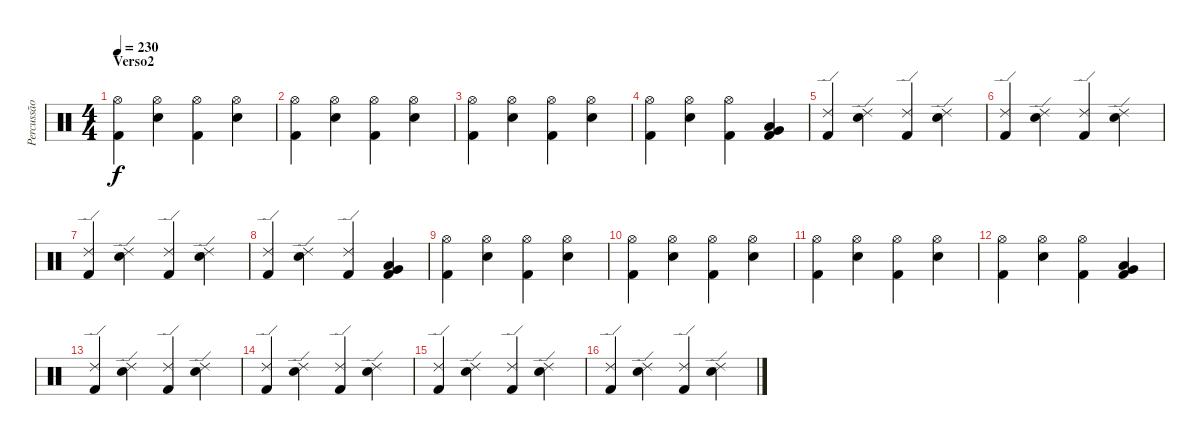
\track ("Percussão" "Percussão") {instrument percussion}
\staff {score}
\articulation defaults
\ts (4 4)
\section ("" "Verso2")
\tempo 230
\clef neutral
\ks c
("Hi-Hat (open)" "Kick (hit) 2").4{dy f} ("Hi-Hat (open)" "Snare (hit) 2").4 ("Hi-Hat (open)" "Kick (hit) 2").4 ("Hi-Hat (open)" "Snare (hit) 2").4 |
("Hi-Hat (open)" "Kick (hit) 2").4 ("Hi-Hat (open)" "Snare (hit) 2").4 ("Hi-Hat (open)" "Kick (hit) 2").4 ("Hi-Hat (open)" "Snare (hit) 2").4 |
("Hi-Hat (open)" "Kick (hit) 2").4 ("Hi-Hat (open)" "Snare (hit) 2").4 ("Hi-Hat (open)" "Kick (hit) 2").4 ("Hi-Hat (open)" "Snare (hit) 2").4 |
("Hi-Hat (open)" "Kick (hit) 2").4 ("Hi-Hat (open)" "Snare (hit) 2").4 ("Hi-Hat (open)" "Kick (hit) 2").4 ("Low Tom (hit)" "Very Low Tom (hit)" "Kick (hit) 2").4 |
("Ride (edge) 2" "Kick (hit) 2").4 ("Ride (edge) 2" "Snare (hit) 2").4 ("Ride (edge) 2" "Kick (hit) 2").4 ("Ride (edge) 2" "Snare (hit) 2").4 |
("Ride (edge) 2" "Kick (hit) 2").4 ("Ride (edge) 2" "Snare (hit) 2").4 ("Ride (edge) 2" "Kick (hit) 2").4 ("Ride (edge) 2" "Snare (hit) 2").4 |
("Ride (edge) 2" "Kick (hit) 2").4 ("Ride (edge) 2" "Snare (hit) 2").4 ("Ride (edge) 2" "Kick (hit) 2").4 ("Ride (edge) 2" "Snare (hit) 2").4 |
("Ride (edge) 2" "Kick (hit) 2").4 ("Ride (edge) 2" "Snare (hit) 2").4 ("Ride (edge) 2" "Kick (hit) 2").4 ("Very Low Tom (hit)" "Low Tom (hit)" "Kick (hit) 2").4 |
("Hi-Hat (open)" "Kick (hit) 2").4 ("Hi-Hat (open)" "Snare (hit) 2").4 ("Hi-Hat (open)" "Kick (hit) 2").4 ("Hi-Hat (open)" "Snare (hit) 2").4 |
("Hi-Hat (open)" "Kick (hit) 2").4 ("Hi-Hat (open)" "Snare (hit) 2").4 ("Hi-Hat (open)" "Kick (hit) 2").4 ("Hi-Hat (open)" "Snare (hit) 2").4 |
("Hi-Hat (open)" "Kick (hit) 2").4 ("Hi-Hat (open)" "Snare (hit) 2").4 ("Hi-Hat (open)" "Kick (hit) 2").4 ("Hi-Hat (open)" "Snare (hit) 2").4 |
("Hi-Hat (open)" "Kick (hit) 2").4 ("Hi-Hat (open)" "Snare (hit) 2").4 ("Hi-Hat (open)" "Kick (hit) 2").4 ("Low Tom (hit)" "Very Low Tom (hit)" "Kick (hit) 2").4 |
("Ride (edge) 2" "Kick (hit) 2").4 ("Ride (edge) 2" "Snare (hit) 2").4 ("Ride (edge) 2" "Kick (hit) 2").4 ("Ride (edge) 2" "Snare (hit) 2").4 |
("Ride (edge) 2" "Kick (hit) 2").4 ("Ride (edge) 2" "Snare (hit) 2").4 ("Ride (edge) 2" "Kick (hit) 2").4 ("Ride (edge) 2" "Snare (hit) 2").4 |
("Ride (edge) 2" "Kick (hit) 2").4 ("Ride (edge) 2" "Snare (hit) 2").4 ("Ride (edge) 2" "Kick (hit) 2").4 ("Ride (edge) 2" "Snare (hit) 2").4 |
("Ride (edge) 2" "Kick (hit) 2").4 ("Ride (edge) 2" "Snare (hit) 2").4 ("Ride (edge) 2" "Kick (hit) 2").4 ("Ride (edge) 2" "Snare (hit) 2").4
